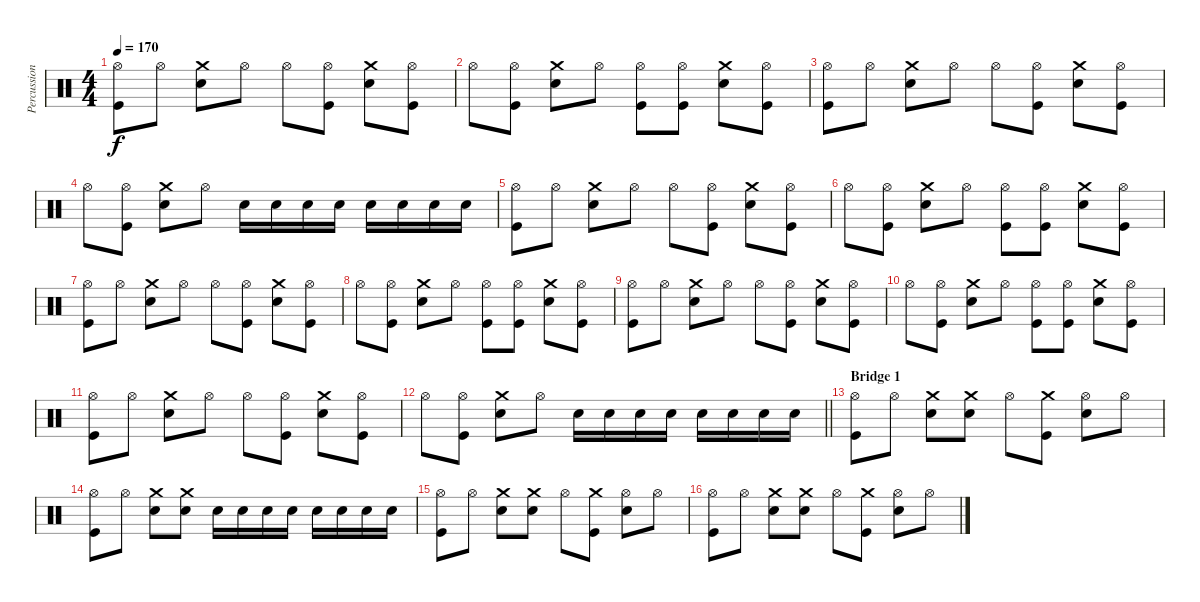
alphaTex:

\track ("Percussion" "Percussion") {instrument percussion}
\staff {score}
\articulation defaults
\ts (4 4)
\tempo 170
\clef neutral
\ks c
("Hi-Hat (open)" "Kick (hit)").8{dy f} "Hi-Hat (open)".8 ("Crash medium (hit)" "Snare (hit) 2").8 "Hi-Hat (open)".8 "Hi-Hat (open)".8 ("Hi-Hat (open)" "Kick (hit)").8 ("Crash medium (hit)" "Snare (hit) 2").8 ("Hi-Hat (open)" "Kick (hit)").8 |
"Hi-Hat (open)".8 ("Hi-Hat (open)" "Kick (hit)").8 ("Crash medium (hit)" "Snare (hit) 2").8 "Hi-Hat (open)".8 ("Hi-Hat (open)" "Kick (hit)").8 ("Hi-Hat (open)" "Kick (hit)").8 ("Crash medium (hit)" "Snare (hit) 2").8 ("Hi-Hat (open)" "Kick (hit)").8 |
("Hi-Hat (open)" "Kick (hit)").8 "Hi-Hat (open)".8 ("Crash medium (hit)" "Snare (hit) 2").8 "Hi-Hat (open)".8 "Hi-Hat (open)".8 ("Hi-Hat (open)" "Kick (hit)").8 ("Crash medium (hit)" "Snare (hit) 2").8 ("Hi-Hat (open)" "Kick (hit)").8 |
"Hi-Hat (open)".8 ("Hi-Hat (open)" "Kick (hit)").8 ("Crash medium (hit)" "Snare (hit) 2").8 "Hi-Hat (open)".8 "Snare (hit) 2".16 "Snare (hit) 2".16 "Snare (hit) 2".16 "Snare (hit) 2".16 "Snare (hit) 2".16 "Snare (hit) 2".16 "Snare (hit) 2".16 "Snare (hit) 2".16 |
("Hi-Hat (open)" "Kick (hit)").8 "Hi-Hat (open)".8 ("Crash medium (hit)" "Snare (hit) 2").8 "Hi-Hat (open)".8 "Hi-Hat (open)".8 ("Hi-Hat (open)" "Kick (hit)").8 ("Crash medium (hit)" "Snare (hit) 2").8 ("Hi-Hat (open)" "Kick (hit)").8 |
"Hi-Hat (open)".8 ("Hi-Hat (open)" "Kick (hit)").8 ("Crash medium (hit)" "Snare (hit) 2").8 "Hi-Hat (open)".8 ("Hi-Hat (open)" "Kick (hit)").8 ("Hi-Hat (open)" "Kick (hit)").8 ("Crash medium (hit)" "Snare (hit) 2").8 ("Hi-Hat (open)" "Kick (hit)").8 |
("Hi-Hat (open)" "Kick (hit)").8 "Hi-Hat (open)".8 ("Crash medium (hit)" "Snare (hit) 2").8 "Hi-Hat (open)".8 "Hi-Hat (open)".8 ("Hi-Hat (open)" "Kick (hit)").8 ("Crash medium (hit)" "Snare (hit) 2").8 ("Hi-Hat (open)" "Kick (hit)").8 |
"Hi-Hat (open)".8 ("Hi-Hat (open)" "Kick (hit)").8 ("Crash medium (hit)" "Snare (hit) 2").8 "Hi-Hat (open)".8 ("Hi-Hat (open)" "Kick (hit)").8 ("Hi-Hat (open)" "Kick (hit)").8 ("Crash medium (hit)" "Snare (hit) 2").8 ("Hi-Hat (open)" "Kick (hit)").8 |
("Hi-Hat (open)" "Kick (hit)").8 "Hi-Hat (open)".8 ("Crash medium (hit)" "Snare (hit) 2").8 "Hi-Hat (open)".8 "Hi-Hat (open)".8 ("Hi-Hat (open)" "Kick (hit)").8 ("Crash medium (hit)" "Snare (hit) 2").8 ("Hi-Hat (open)" "Kick (hit)").8 |
"Hi-Hat (open)".8 ("Hi-Hat (open)" "Kick (hit)").8 ("Crash medium (hit)" "Snare (hit) 2").8 "Hi-Hat (open)".8 ("Hi-Hat (open)" "Kick (hit)").8 ("Hi-Hat (open)" "Kick (hit)").8 ("Crash medium (hit)" "Snare (hit) 2").8 ("Hi-Hat (open)" "Kick (hit)").8 |
("Hi-Hat (open)" "Kick (hit)").8 "Hi-Hat (open)".8 ("Crash medium (hit)" "Snare (hit) 2").8 "Hi-Hat (open)".8 "Hi-Hat (open)".8 ("Hi-Hat (open)" "Kick (hit)").8 ("Crash medium (hit)" "Snare (hit) 2").8 ("Hi-Hat (open)" "Kick (hit)").8 |
\barLineRight lightlight "Hi-Hat (open)".8
("Hi-Hat (open)" "Kick (hit)").8 ("Crash medium (hit)" "Snare (hit) 2").8 "Hi-Hat (open)".8 "Snare (hit) 2".16 "Snare (hit) 2".16 "Snare (hit) 2".16 "Snare (hit) 2".16 "Snare (hit) 2".16 "Snare (hit) 2".16 "Snare (hit) 2".16 "Snare (hit) 2".16 |
\section ("" "Bridge 1")
("Hi-Hat (open)" "Kick (hit)").8 "Hi-Hat (open)".8 ("Crash medium (hit)" "Snare (hit) 2").8 ("Crash medium (hit)" "Snare (hit) 2").8 "Hi-Hat (open)".8 ("Crash medium (hit)" "Kick (hit)").8 ("Hi-Hat (open)" "Snare (hit) 2").8 "Hi-Hat (open)".8 |
("Hi-Hat (open)" "Kick (hit)").8 "Hi-Hat (open)".8 ("Crash medium (hit)" "Snare (hit) 2").8 ("Crash medium (hit)" "Snare (hit) 2").8 "Snare (hit) 2".16 "Snare (hit) 2".16 "Snare (hit) 2".16 "Snare (hit) 2".16 "Snare (hit) 2".16 "Snare (hit) 2".16 "Snare (hit) 2".16 "Snare (hit) 2".16 |
("Hi-Hat (open)" "Kick (hit)").8 "Hi-Hat (open)".8 ("Crash medium (hit)" "Snare (hit) 2").8 ("Crash medium (hit)" "Snare (hit) 2").8 "Hi-Hat (open)".8 ("Crash medium (hit)" "Kick (hit)").8 ("Hi-Hat (open)" "Snare (hit) 2").8 "Hi-Hat (open)".8 |
("Hi-Hat (open)" "Kick (hit)").8 "Hi-Hat (open)".8 ("Crash medium (hit)" "Snare (hit) 2").8 ("Crash medium (hit)" "Snare (hit) 2").8 "Hi-Hat (open)".8 ("Crash medium (hit)" "Kick (hit)").8 ("Hi-Hat (open)" "Snare (hit) 2").8 "Hi-Hat (open)".8
